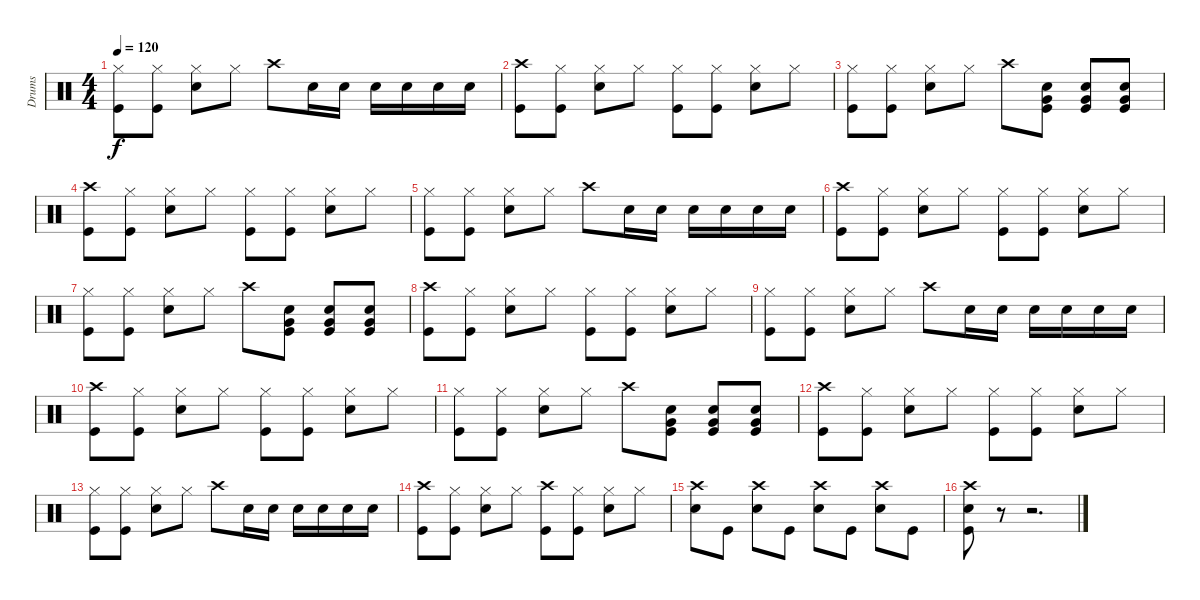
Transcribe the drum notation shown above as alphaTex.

\track ("Drums" "Drums") {instrument percussion}
\staff {score}
\articulation defaults
\ts (4 4)
\tempo 120
\clef neutral
\ks c
("Hi-Hat (closed)" "Kick (hit)").8{dy f} ("Hi-Hat (closed)" "Kick (hit)").8 ("Hi-Hat (closed)" "Snare (hit) 2").8 "Hi-Hat (closed)".8 "Crash high (hit)".8 "Snare (hit) 2".16 "Snare (hit) 2".16 "Snare (hit) 2".16 "Snare (hit) 2".16 "Snare (hit) 2".16 "Snare (hit) 2".16 |
("Crash high (hit)" "Kick (hit)").8 ("Hi-Hat (closed)" "Kick (hit)").8 ("Hi-Hat (closed)" "Snare (hit) 2").8 "Hi-Hat (closed)".8 ("Hi-Hat (closed)" "Kick (hit)").8 ("Hi-Hat (closed)" "Kick (hit)").8 ("Hi-Hat (closed)" "Snare (hit) 2").8 "Hi-Hat (closed)".8 |
("Hi-Hat (closed)" "Kick (hit)").8 ("Hi-Hat (closed)" "Kick (hit)").8 ("Hi-Hat (closed)" "Snare (hit) 2").8 "Hi-Hat (closed)".8 "Crash high (hit)".8 ("Snare (hit) 2" "Very Low Tom (hit)" "Kick (hit)").8 ("Snare (hit) 2" "Very Low Tom (hit)" "Kick (hit)").8 ("Snare (hit) 2" "Very Low Tom (hit)" "Kick (hit)").8 |
("Crash high (hit)" "Kick (hit)").8 ("Hi-Hat (closed)" "Kick (hit)").8 ("Hi-Hat (closed)" "Snare (hit) 2").8 "Hi-Hat (closed)".8 ("Hi-Hat (closed)" "Kick (hit)").8 ("Hi-Hat (closed)" "Kick (hit)").8 ("Hi-Hat (closed)" "Snare (hit) 2").8 "Hi-Hat (closed)".8 |
("Hi-Hat (closed)" "Kick (hit)").8 ("Hi-Hat (closed)" "Kick (hit)").8 ("Hi-Hat (closed)" "Snare (hit) 2").8 "Hi-Hat (closed)".8 "Crash high (hit)".8 "Snare (hit) 2".16 "Snare (hit) 2".16 "Snare (hit) 2".16 "Snare (hit) 2".16 "Snare (hit) 2".16 "Snare (hit) 2".16 |
("Crash high (hit)" "Kick (hit)").8 ("Hi-Hat (closed)" "Kick (hit)").8 ("Hi-Hat (closed)" "Snare (hit) 2").8 "Hi-Hat (closed)".8 ("Hi-Hat (closed)" "Kick (hit)").8 ("Hi-Hat (closed)" "Kick (hit)").8 ("Hi-Hat (closed)" "Snare (hit) 2").8 "Hi-Hat (closed)".8 |
("Hi-Hat (closed)" "Kick (hit)").8 ("Hi-Hat (closed)" "Kick (hit)").8 ("Hi-Hat (closed)" "Snare (hit) 2").8 "Hi-Hat (closed)".8 "Crash high (hit)".8 ("Snare (hit) 2" "Very Low Tom (hit)" "Kick (hit)").8 ("Snare (hit) 2" "Very Low Tom (hit)" "Kick (hit)").8 ("Snare (hit) 2" "Very Low Tom (hit)" "Kick (hit)").8 |
("Crash high (hit)" "Kick (hit)").8 ("Hi-Hat (closed)" "Kick (hit)").8 ("Hi-Hat (closed)" "Snare (hit) 2").8 "Hi-Hat (closed)".8 ("Hi-Hat (closed)" "Kick (hit)").8 ("Hi-Hat (closed)" "Kick (hit)").8 ("Hi-Hat (closed)" "Snare (hit) 2").8 "Hi-Hat (closed)".8 |
("Hi-Hat (closed)" "Kick (hit)").8 ("Hi-Hat (closed)" "Kick (hit)").8 ("Hi-Hat (closed)" "Snare (hit) 2").8 "Hi-Hat (closed)".8 "Crash high (hit)".8 "Snare (hit) 2".16 "Snare (hit) 2".16 "Snare (hit) 2".16 "Snare (hit) 2".16 "Snare (hit) 2".16 "Snare (hit) 2".16 |
("Crash high (hit)" "Kick (hit)").8 ("Hi-Hat (closed)" "Kick (hit)").8 ("Hi-Hat (closed)" "Snare (hit) 2").8 "Hi-Hat (closed)".8 ("Hi-Hat (closed)" "Kick (hit)").8 ("Hi-Hat (closed)" "Kick (hit)").8 ("Hi-Hat (closed)" "Snare (hit) 2").8 "Hi-Hat (closed)".8 |
("Hi-Hat (closed)" "Kick (hit)").8 ("Hi-Hat (closed)" "Kick (hit)").8 ("Hi-Hat (closed)" "Snare (hit) 2").8 "Hi-Hat (closed)".8 "Crash high (hit)".8 ("Snare (hit) 2" "Very Low Tom (hit)" "Kick (hit)").8 ("Snare (hit) 2" "Very Low Tom (hit)" "Kick (hit)").8 ("Snare (hit) 2" "Very Low Tom (hit)" "Kick (hit)").8 |
("Crash high (hit)" "Kick (hit)").8 ("Hi-Hat (closed)" "Kick (hit)").8 ("Hi-Hat (closed)" "Snare (hit) 2").8 "Hi-Hat (closed)".8 ("Hi-Hat (closed)" "Kick (hit)").8 ("Hi-Hat (closed)" "Kick (hit)").8 ("Hi-Hat (closed)" "Snare (hit) 2").8 "Hi-Hat (closed)".8 |
("Hi-Hat (closed)" "Kick (hit)").8 ("Hi-Hat (closed)" "Kick (hit)").8 ("Hi-Hat (closed)" "Snare (hit) 2").8 "Hi-Hat (closed)".8 "Crash high (hit)".8 "Snare (hit) 2".16 "Snare (hit) 2".16 "Snare (hit) 2".16 "Snare (hit) 2".16 "Snare (hit) 2".16 "Snare (hit) 2".16 |
("Crash high (hit)" "Kick (hit)").8 ("Hi-Hat (closed)" "Kick (hit)").8 ("Hi-Hat (closed)" "Snare (hit) 2").8 "Hi-Hat (closed)".8 ("Crash high (hit)" "Kick (hit)").8 ("Hi-Hat (closed)" "Kick (hit)").8 ("Hi-Hat (closed)" "Snare (hit) 2").8 "Hi-Hat (closed)".8 |
("Crash high (hit)" "Snare (hit) 2").8 "Kick (hit)".8 ("Crash high (hit)" "Snare (hit) 2").8 "Kick (hit)".8 ("Crash high (hit)" "Snare (hit) 2").8 "Kick (hit)".8 ("Crash high (hit)" "Snare (hit) 2").8 "Kick (hit)".8 |
("Crash high (hit)" "Snare (hit) 2" "Kick (hit)").8 r.8 r.2{d}
